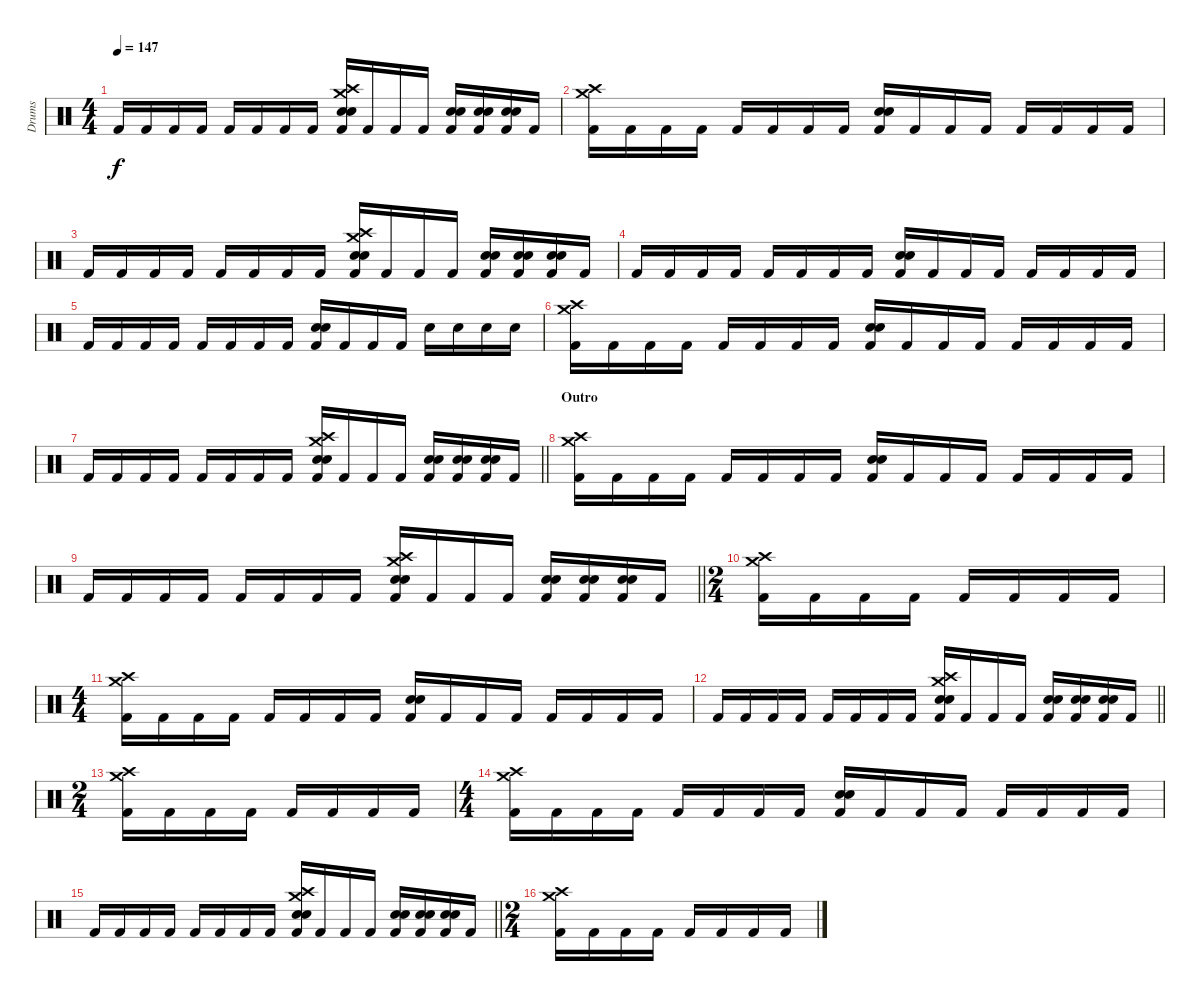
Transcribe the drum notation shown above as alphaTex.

\track ("Drums" "Drums") {instrument percussion}
\staff
\articulation defaults
\ts (4 4)
\tempo 147
\clef neutral
\ks c "Kick (hit) 2".16{dy f} "Kick (hit) 2".16 "Kick (hit) 2".16 "Kick (hit) 2".16 "Kick (hit) 2".16 "Kick (hit) 2".16 "Kick (hit) 2".16 "Kick (hit) 2".16
("Crash medium (hit)" "Crash high (hit)" "Kick (hit) 2" "Electric Snare (hit)" "Snare (hit) 2").16 "Kick (hit) 2".16 "Kick (hit) 2".16 "Kick (hit) 2".16 ("Kick (hit) 2" "Electric Snare (hit)" "Snare (hit) 2").16 ("Kick (hit) 2" "Electric Snare (hit)" "Snare (hit) 2").16 ("Kick (hit) 2" "Electric Snare (hit)" "Snare (hit) 2").16 "Kick (hit) 2".16 |
("Crash high (hit)" "Kick (hit) 2" "Crash medium (hit)").16 "Kick (hit) 2".16 "Kick (hit) 2".16 "Kick (hit) 2".16 "Kick (hit) 2".16 "Kick (hit) 2".16 "Kick (hit) 2".16 "Kick (hit) 2".16 ("Kick (hit) 2" "Electric Snare (hit)" "Snare (hit) 2").16 "Kick (hit) 2".16 "Kick (hit) 2".16 "Kick (hit) 2".16 "Kick (hit) 2".16 "Kick (hit) 2".16 "Kick (hit) 2".16 "Kick (hit) 2".16 |
"Kick (hit) 2".16 "Kick (hit) 2".16 "Kick (hit) 2".16 "Kick (hit) 2".16 "Kick (hit) 2".16 "Kick (hit) 2".16 "Kick (hit) 2".16 "Kick (hit) 2".16 ("Crash medium (hit)" "Crash high (hit)" "Kick (hit) 2" "Electric Snare (hit)" "Snare (hit) 2").16 "Kick (hit) 2".16 "Kick (hit) 2".16 "Kick (hit) 2".16 ("Kick (hit) 2" "Electric Snare (hit)" "Snare (hit) 2").16 ("Kick (hit) 2" "Electric Snare (hit)" "Snare (hit) 2").16 ("Kick (hit) 2" "Electric Snare (hit)" "Snare (hit) 2").16 "Kick (hit) 2".16 |
"Kick (hit) 2".16 "Kick (hit) 2".16 "Kick (hit) 2".16 "Kick (hit) 2".16 "Kick (hit) 2".16 "Kick (hit) 2".16 "Kick (hit) 2".16 "Kick (hit) 2".16 ("Kick (hit) 2" "Electric Snare (hit)" "Snare (hit) 2").16 "Kick (hit) 2".16 "Kick (hit) 2".16 "Kick (hit) 2".16 "Kick (hit) 2".16 "Kick (hit) 2".16 "Kick (hit) 2".16 "Kick (hit) 2".16 |
"Kick (hit) 2".16 "Kick (hit) 2".16 "Kick (hit) 2".16 "Kick (hit) 2".16 "Kick (hit) 2".16 "Kick (hit) 2".16 "Kick (hit) 2".16 "Kick (hit) 2".16 ("Kick (hit) 2" "Electric Snare (hit)" "Snare (hit) 2").16 "Kick (hit) 2".16 "Kick (hit) 2".16 "Kick (hit) 2".16 "Snare (hit) 2".16 "Snare (hit) 2".16 "Snare (hit) 2".16 "Snare (hit) 2".16 |
("Crash high (hit)" "Kick (hit) 2" "Crash medium (hit)").16 "Kick (hit) 2".16 "Kick (hit) 2".16 "Kick (hit) 2".16 "Kick (hit) 2".16 "Kick (hit) 2".16 "Kick (hit) 2".16 "Kick (hit) 2".16 ("Kick (hit) 2" "Electric Snare (hit)" "Snare (hit) 2").16 "Kick (hit) 2".16 "Kick (hit) 2".16 "Kick (hit) 2".16 "Kick (hit) 2".16 "Kick (hit) 2".16 "Kick (hit) 2".16 "Kick (hit) 2".16 |
\barLineRight lightlight "Kick (hit) 2".16 "Kick (hit) 2".16 "Kick (hit) 2".16 "Kick (hit) 2".16 "Kick (hit) 2".16 "Kick (hit) 2".16 "Kick (hit) 2".16 "Kick (hit) 2".16
("Crash medium (hit)" "Crash high (hit)" "Kick (hit) 2" "Electric Snare (hit)" "Snare (hit) 2").16 "Kick (hit) 2".16 "Kick (hit) 2".16 "Kick (hit) 2".16 ("Kick (hit) 2" "Electric Snare (hit)" "Snare (hit) 2").16 ("Kick (hit) 2" "Electric Snare (hit)" "Snare (hit) 2").16 ("Kick (hit) 2" "Electric Snare (hit)" "Snare (hit) 2").16 "Kick (hit) 2".16 |
\section ("" "Outro")
("Crash high (hit)" "Kick (hit) 2" "Crash medium (hit)").16 "Kick (hit) 2".16 "Kick (hit) 2".16 "Kick (hit) 2".16 "Kick (hit) 2".16 "Kick (hit) 2".16 "Kick (hit) 2".16 "Kick (hit) 2".16 ("Kick (hit) 2" "Electric Snare (hit)" "Snare (hit) 2").16 "Kick (hit) 2".16 "Kick (hit) 2".16 "Kick (hit) 2".16 "Kick (hit) 2".16 "Kick (hit) 2".16 "Kick (hit) 2".16 "Kick (hit) 2".16 |
\barLineRight lightlight "Kick (hit) 2".16 "Kick (hit) 2".16 "Kick (hit) 2".16 "Kick (hit) 2".16 "Kick (hit) 2".16 "Kick (hit) 2".16 "Kick (hit) 2".16 "Kick (hit) 2".16
("Crash medium (hit)" "Crash high (hit)" "Kick (hit) 2" "Electric Snare (hit)" "Snare (hit) 2").16 "Kick (hit) 2".16 "Kick (hit) 2".16 "Kick (hit) 2".16 ("Kick (hit) 2" "Electric Snare (hit)" "Snare (hit) 2").16 ("Kick (hit) 2" "Electric Snare (hit)" "Snare (hit) 2").16 ("Kick (hit) 2" "Electric Snare (hit)" "Snare (hit) 2").16 "Kick (hit) 2".16 |
\ts (2 4)
("Crash high (hit)" "Kick (hit) 2" "Crash medium (hit)").16 "Kick (hit) 2".16 "Kick (hit) 2".16 "Kick (hit) 2".16 "Kick (hit) 2".16 "Kick (hit) 2".16 "Kick (hit) 2".16 "Kick (hit) 2".16 |
\ts (4 4)
("Crash high (hit)" "Kick (hit) 2" "Crash medium (hit)").16 "Kick (hit) 2".16 "Kick (hit) 2".16 "Kick (hit) 2".16 "Kick (hit) 2".16 "Kick (hit) 2".16 "Kick (hit) 2".16 "Kick (hit) 2".16 ("Kick (hit) 2" "Electric Snare (hit)" "Snare (hit) 2").16 "Kick (hit) 2".16 "Kick (hit) 2".16 "Kick (hit) 2".16 "Kick (hit) 2".16 "Kick (hit) 2".16 "Kick (hit) 2".16 "Kick (hit) 2".16 |
\barLineRight lightlight "Kick (hit) 2".16 "Kick (hit) 2".16 "Kick (hit) 2".16 "Kick (hit) 2".16 "Kick (hit) 2".16 "Kick (hit) 2".16 "Kick (hit) 2".16 "Kick (hit) 2".16
("Crash medium (hit)" "Crash high (hit)" "Kick (hit) 2" "Electric Snare (hit)" "Snare (hit) 2").16 "Kick (hit) 2".16 "Kick (hit) 2".16 "Kick (hit) 2".16 ("Kick (hit) 2" "Electric Snare (hit)" "Snare (hit) 2").16 ("Kick (hit) 2" "Electric Snare (hit)" "Snare (hit) 2").16 ("Kick (hit) 2" "Electric Snare (hit)" "Snare (hit) 2").16 "Kick (hit) 2".16 |
\ts (2 4)
("Crash high (hit)" "Kick (hit) 2" "Crash medium (hit)").16 "Kick (hit) 2".16 "Kick (hit) 2".16 "Kick (hit) 2".16 "Kick (hit) 2".16 "Kick (hit) 2".16 "Kick (hit) 2".16 "Kick (hit) 2".16 |
\ts (4 4)
("Crash high (hit)" "Kick (hit) 2" "Crash medium (hit)").16 "Kick (hit) 2".16 "Kick (hit) 2".16 "Kick (hit) 2".16 "Kick (hit) 2".16 "Kick (hit) 2".16 "Kick (hit) 2".16 "Kick (hit) 2".16 ("Kick (hit) 2" "Electric Snare (hit)" "Snare (hit) 2").16 "Kick (hit) 2".16 "Kick (hit) 2".16 "Kick (hit) 2".16 "Kick (hit) 2".16 "Kick (hit) 2".16 "Kick (hit) 2".16 "Kick (hit) 2".16 |
\barLineRight lightlight "Kick (hit) 2".16 "Kick (hit) 2".16 "Kick (hit) 2".16 "Kick (hit) 2".16 "Kick (hit) 2".16 "Kick (hit) 2".16 "Kick (hit) 2".16 "Kick (hit) 2".16
("Crash medium (hit)" "Crash high (hit)" "Kick (hit) 2" "Electric Snare (hit)" "Snare (hit) 2").16 "Kick (hit) 2".16 "Kick (hit) 2".16 "Kick (hit) 2".16 ("Kick (hit) 2" "Electric Snare (hit)" "Snare (hit) 2").16 ("Kick (hit) 2" "Electric Snare (hit)" "Snare (hit) 2").16 ("Kick (hit) 2" "Electric Snare (hit)" "Snare (hit) 2").16 "Kick (hit) 2".16 |
\ts (2 4)
("Crash high (hit)" "Kick (hit) 2" "Crash medium (hit)").16 "Kick (hit) 2".16 "Kick (hit) 2".16 "Kick (hit) 2".16 "Kick (hit) 2".16 "Kick (hit) 2".16 "Kick (hit) 2".16 "Kick (hit) 2".16
